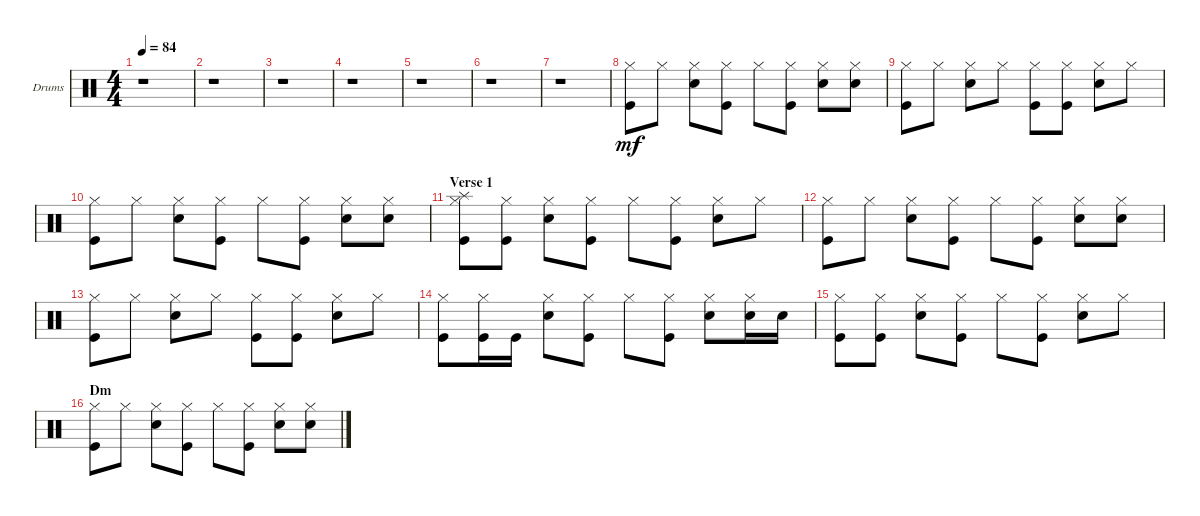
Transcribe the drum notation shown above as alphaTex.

\defaultSystemsLayout 4
\bracketExtendMode groupsimilarinstruments
\firstSystemTrackNameOrientation horizontal
\otherSystemsTrackNameOrientation horizontal
\track ("Drumkit" "Drums") {instrument percussion}
\staff {score}
\articulation defaults
\ts (4 4)
\tempo 84
\clef neutral
\ks c
r.1{dy mf} |
r.1 |
r.1 |
r.1 |
r.1 |
r.1 |
r.1 |
("Hi-Hat (closed)" "Kick (hit)").8 "Hi-Hat (closed)".8 ("Hi-Hat (closed)" "Snare (hit) 2").8 ("Hi-Hat (closed)" "Kick (hit)").8 "Hi-Hat (closed)".8 ("Hi-Hat (closed)" "Kick (hit)").8 ("Hi-Hat (closed)" "Snare (hit) 2").8 ("Hi-Hat (closed)" "Snare (hit) 2").8 |
("Hi-Hat (closed)" "Kick (hit)").8 "Hi-Hat (closed)".8 ("Hi-Hat (closed)" "Snare (hit) 2").8 "Hi-Hat (closed)".8 ("Hi-Hat (closed)" "Kick (hit)").8 ("Hi-Hat (closed)" "Kick (hit)").8 ("Hi-Hat (closed)" "Snare (hit) 2").8 "Hi-Hat (closed)".8 |
("Hi-Hat (closed)" "Kick (hit)").8 "Hi-Hat (closed)".8 ("Hi-Hat (closed)" "Snare (hit) 2").8 ("Hi-Hat (closed)" "Kick (hit)").8 "Hi-Hat (closed)".8 ("Hi-Hat (closed)" "Kick (hit)").8 ("Hi-Hat (closed)" "Snare (hit) 2").8 ("Hi-Hat (closed)" "Snare (hit) 2").8 |
\section ("" "Verse 1")
("Hi-Hat (closed)" "Kick (hit)" "Splash (hit)").8 ("Hi-Hat (closed)" "Kick (hit)").8 ("Hi-Hat (closed)" "Snare (hit) 2").8 ("Hi-Hat (closed)" "Kick (hit)").8 "Hi-Hat (closed)".8 ("Hi-Hat (closed)" "Kick (hit)").8 ("Hi-Hat (closed)" "Snare (hit) 2").8 "Hi-Hat (closed)".8 |
("Hi-Hat (closed)" "Kick (hit)").8 "Hi-Hat (closed)".8 ("Hi-Hat (closed)" "Snare (hit) 2").8 ("Hi-Hat (closed)" "Kick (hit)").8 "Hi-Hat (closed)".8 ("Hi-Hat (closed)" "Kick (hit)").8 ("Hi-Hat (closed)" "Snare (hit) 2").8 ("Hi-Hat (closed)" "Snare (hit) 2").8 |
("Hi-Hat (closed)" "Kick (hit)").8 "Hi-Hat (closed)".8 ("Hi-Hat (closed)" "Snare (hit) 2").8 "Hi-Hat (closed)".8 ("Hi-Hat (closed)" "Kick (hit)").8 ("Hi-Hat (closed)" "Kick (hit)").8 ("Hi-Hat (closed)" "Snare (hit) 2").8 "Hi-Hat (closed)".8 |
("Hi-Hat (closed)" "Kick (hit)").8 ("Hi-Hat (closed)" "Kick (hit)").16 "Kick (hit)".16 ("Hi-Hat (closed)" "Snare (hit) 2").8 ("Hi-Hat (closed)" "Kick (hit)").8 "Hi-Hat (closed)".8 ("Hi-Hat (closed)" "Kick (hit)").8 ("Hi-Hat (closed)" "Snare (hit) 2").8 ("Hi-Hat (closed)" "Snare (hit) 2").16 "Snare (hit) 2".16 |
("Hi-Hat (closed)" "Kick (hit)").8 ("Hi-Hat (closed)" "Kick (hit)").8 ("Hi-Hat (closed)" "Snare (hit) 2").8 ("Hi-Hat (closed)" "Kick (hit)").8 "Hi-Hat (closed)".8 ("Hi-Hat (closed)" "Kick (hit)").8 ("Hi-Hat (closed)" "Snare (hit) 2").8 "Hi-Hat (closed)".8 |
\section ("" "Dm")
("Hi-Hat (closed)" "Kick (hit)").8 "Hi-Hat (closed)".8 ("Hi-Hat (closed)" "Snare (hit) 2").8 ("Hi-Hat (closed)" "Kick (hit)").8 "Hi-Hat (closed)".8 ("Hi-Hat (closed)" "Kick (hit)").8 ("Hi-Hat (closed)" "Snare (hit) 2").8 ("Hi-Hat (closed)" "Snare (hit) 2").8
